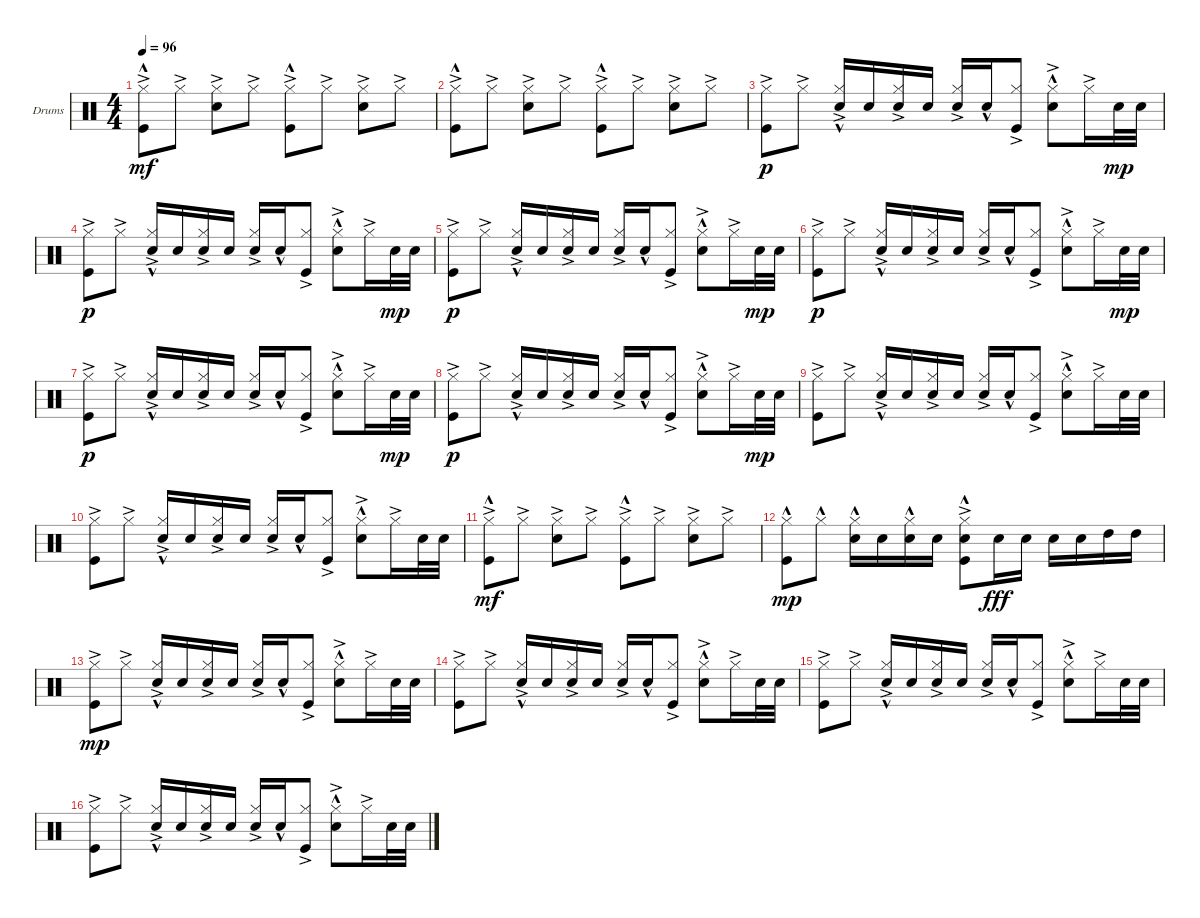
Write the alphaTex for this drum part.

\defaultSystemsLayout 4
\bracketExtendMode groupsimilarinstruments
\firstSystemTrackNameOrientation horizontal
\otherSystemsTrackNameOrientation horizontal
\track ("Drumkit" "Drums") {instrument percussion}
\staff {score}
\articulation defaults
\ts (4 4)
\tempo 96
\clef neutral
\ks c
("Hi-Hat (closed)"{ac} "Kick (hit)"{hac}).8{dy mf} "Hi-Hat (closed)"{ac}.8 ("Hi-Hat (closed)"{ac} "Snare (hit) 2").8 "Hi-Hat (closed)"{ac}.8 ("Hi-Hat (closed)"{ac} "Kick (hit)"{hac}).8 "Hi-Hat (closed)"{ac}.8 ("Hi-Hat (closed)"{ac} "Snare (hit) 2").8 "Hi-Hat (closed)"{ac}.8 |
("Hi-Hat (closed)"{ac} "Kick (hit)"{hac}).8 "Hi-Hat (closed)"{ac}.8 ("Hi-Hat (closed)"{ac} "Snare (hit) 2").8 "Hi-Hat (closed)"{ac}.8 ("Hi-Hat (closed)"{ac} "Kick (hit)"{hac}).8 "Hi-Hat (closed)"{ac}.8 ("Hi-Hat (closed)"{ac} "Snare (hit) 2").8 "Hi-Hat (closed)"{ac}.8 |
("Hi-Hat (closed)"{ac} "Kick (hit)"{ac}).8{dy p} "Hi-Hat (closed)"{ac}.8 ("Hi-Hat (closed)"{ac} "Snare (hit) 2"{hac}).16 "Snare (hit) 2".16 ("Snare (hit) 2" "Hi-Hat (closed)"{ac}).16 "Snare (hit) 2".16 ("Hi-Hat (closed)"{ac} "Snare (hit) 2").16{beam invert} "Snare (hit) 2"{hac}.16 ("Hi-Hat (closed)"{ac} "Kick (hit)").8 ("Snare (hit) 2"{hac} "Hi-Hat (closed)"{ac}).8 "Hi-Hat (closed)"{ac}.16 "Snare (hit) 2".32{dy mp} "Snare (hit) 2".32 |
("Hi-Hat (closed)"{ac} "Kick (hit)"{ac}).8{dy p} "Hi-Hat (closed)"{ac}.8 ("Hi-Hat (closed)"{ac} "Snare (hit) 2"{hac}).16 "Snare (hit) 2".16 ("Snare (hit) 2" "Hi-Hat (closed)"{ac}).16 "Snare (hit) 2".16 ("Hi-Hat (closed)"{ac} "Snare (hit) 2").16{beam invert} "Snare (hit) 2"{hac}.16 ("Hi-Hat (closed)"{ac} "Kick (hit)").8 ("Snare (hit) 2"{hac} "Hi-Hat (closed)"{ac}).8 "Hi-Hat (closed)"{ac}.16 "Snare (hit) 2".32{dy mp} "Snare (hit) 2".32 |
("Hi-Hat (closed)"{ac} "Kick (hit)"{ac}).8{dy p} "Hi-Hat (closed)"{ac}.8 ("Hi-Hat (closed)"{ac} "Snare (hit) 2"{hac}).16 "Snare (hit) 2".16 ("Snare (hit) 2" "Hi-Hat (closed)"{ac}).16 "Snare (hit) 2".16 ("Hi-Hat (closed)"{ac} "Snare (hit) 2").16{beam invert} "Snare (hit) 2"{hac}.16 ("Hi-Hat (closed)"{ac} "Kick (hit)").8 ("Snare (hit) 2"{hac} "Hi-Hat (closed)"{ac}).8 "Hi-Hat (closed)"{ac}.16 "Snare (hit) 2".32{dy mp} "Snare (hit) 2".32 |
("Hi-Hat (closed)"{ac} "Kick (hit)"{ac}).8{dy p} "Hi-Hat (closed)"{ac}.8 ("Hi-Hat (closed)"{ac} "Snare (hit) 2"{hac}).16 "Snare (hit) 2".16 ("Snare (hit) 2" "Hi-Hat (closed)"{ac}).16 "Snare (hit) 2".16 ("Hi-Hat (closed)"{ac} "Snare (hit) 2").16{beam invert} "Snare (hit) 2"{hac}.16 ("Hi-Hat (closed)"{ac} "Kick (hit)").8 ("Snare (hit) 2"{hac} "Hi-Hat (closed)"{ac}).8 "Hi-Hat (closed)"{ac}.16 "Snare (hit) 2".32{dy mp} "Snare (hit) 2".32 |
("Hi-Hat (closed)"{ac} "Kick (hit)"{ac}).8{dy p} "Hi-Hat (closed)"{ac}.8 ("Hi-Hat (closed)"{ac} "Snare (hit) 2"{hac}).16 "Snare (hit) 2".16 ("Snare (hit) 2" "Hi-Hat (closed)"{ac}).16 "Snare (hit) 2".16 ("Hi-Hat (closed)"{ac} "Snare (hit) 2").16{beam invert} "Snare (hit) 2"{hac}.16 ("Hi-Hat (closed)"{ac} "Kick (hit)").8 ("Snare (hit) 2"{hac} "Hi-Hat (closed)"{ac}).8 "Hi-Hat (closed)"{ac}.16 "Snare (hit) 2".32{dy mp} "Snare (hit) 2".32 |
("Hi-Hat (closed)"{ac} "Kick (hit)"{ac}).8{dy p} "Hi-Hat (closed)"{ac}.8 ("Hi-Hat (closed)"{ac} "Snare (hit) 2"{hac}).16 "Snare (hit) 2".16 ("Snare (hit) 2" "Hi-Hat (closed)"{ac}).16 "Snare (hit) 2".16 ("Hi-Hat (closed)"{ac} "Snare (hit) 2").16{beam invert} "Snare (hit) 2"{hac}.16 ("Hi-Hat (closed)"{ac} "Kick (hit)").8 ("Snare (hit) 2"{hac} "Hi-Hat (closed)"{ac}).8 "Hi-Hat (closed)"{ac}.16 "Snare (hit) 2".32{dy mp} "Snare (hit) 2".32 |
("Hi-Hat (closed)"{ac} "Kick (hit)"{ac}).8 "Hi-Hat (closed)"{ac}.8 ("Hi-Hat (closed)"{ac} "Snare (hit) 2"{hac}).16 "Snare (hit) 2".16 ("Snare (hit) 2" "Hi-Hat (closed)"{ac}).16 "Snare (hit) 2".16 ("Hi-Hat (closed)"{ac} "Snare (hit) 2").16{beam invert} "Snare (hit) 2"{hac}.16 ("Hi-Hat (closed)"{ac} "Kick (hit)").8 ("Snare (hit) 2"{hac} "Hi-Hat (closed)"{ac}).8 "Hi-Hat (closed)"{ac}.16 "Snare (hit) 2".32 "Snare (hit) 2".32 |
("Hi-Hat (closed)"{ac} "Kick (hit)"{ac}).8 "Hi-Hat (closed)"{ac}.8 ("Hi-Hat (closed)"{ac} "Snare (hit) 2"{hac}).16 "Snare (hit) 2".16 ("Snare (hit) 2" "Hi-Hat (closed)"{ac}).16 "Snare (hit) 2".16 ("Hi-Hat (closed)"{ac} "Snare (hit) 2").16{beam invert} "Snare (hit) 2"{hac}.16 ("Hi-Hat (closed)"{ac} "Kick (hit)").8 ("Snare (hit) 2"{hac} "Hi-Hat (closed)"{ac}).8 "Hi-Hat (closed)"{ac}.16 "Snare (hit) 2".32 "Snare (hit) 2".32 |
("Hi-Hat (closed)"{ac} "Kick (hit)"{hac}).8{dy mf} "Hi-Hat (closed)"{ac}.8 ("Hi-Hat (closed)"{ac} "Snare (hit) 2").8 "Hi-Hat (closed)"{ac}.8 ("Hi-Hat (closed)"{ac} "Kick (hit)"{hac}).8 "Hi-Hat (closed)"{ac}.8 ("Hi-Hat (closed)"{ac} "Snare (hit) 2").8 "Hi-Hat (closed)"{ac}.8 |
("Kick (hit)"{hac} "Hi-Hat (closed)"{hac}).8{dy mp} "Hi-Hat (closed)"{hac}.8 ("Hi-Hat (closed)"{hac} "Snare (hit) 2"{hac}).16 "Snare (hit) 2".16 ("Snare (hit) 2" "Hi-Hat (closed)"{hac}).16 "Snare (hit) 2".16 ("Kick (hit)"{ac} "Snare (hit) 2" "Hi-Hat (closed)"{hac}).8 "Snare (hit) 2".16{dy fff} "Snare (hit) 2".16 "Snare (hit) 2".16 "Snare (hit) 2".16 "High Tom (hit)".16 "High Tom (hit)".16 |
("Hi-Hat (closed)"{ac} "Kick (hit)"{ac}).8{dy mp} "Hi-Hat (closed)"{ac}.8 ("Hi-Hat (closed)"{ac} "Snare (hit) 2"{hac}).16 "Snare (hit) 2".16 ("Snare (hit) 2" "Hi-Hat (closed)"{ac}).16 "Snare (hit) 2".16 ("Hi-Hat (closed)"{ac} "Snare (hit) 2").16{beam invert} "Snare (hit) 2"{hac}.16 ("Hi-Hat (closed)"{ac} "Kick (hit)").8 ("Snare (hit) 2"{hac} "Hi-Hat (closed)"{ac}).8 "Hi-Hat (closed)"{ac}.16 "Snare (hit) 2".32 "Snare (hit) 2".32 |
("Hi-Hat (closed)"{ac} "Kick (hit)"{ac}).8 "Hi-Hat (closed)"{ac}.8 ("Hi-Hat (closed)"{ac} "Snare (hit) 2"{hac}).16 "Snare (hit) 2".16 ("Snare (hit) 2" "Hi-Hat (closed)"{ac}).16 "Snare (hit) 2".16 ("Hi-Hat (closed)"{ac} "Snare (hit) 2").16{beam invert} "Snare (hit) 2"{hac}.16 ("Hi-Hat (closed)"{ac} "Kick (hit)").8 ("Snare (hit) 2"{hac} "Hi-Hat (closed)"{ac}).8 "Hi-Hat (closed)"{ac}.16 "Snare (hit) 2".32 "Snare (hit) 2".32 |
("Hi-Hat (closed)"{ac} "Kick (hit)"{ac}).8 "Hi-Hat (closed)"{ac}.8 ("Hi-Hat (closed)"{ac} "Snare (hit) 2"{hac}).16 "Snare (hit) 2".16 ("Snare (hit) 2" "Hi-Hat (closed)"{ac}).16 "Snare (hit) 2".16 ("Hi-Hat (closed)"{ac} "Snare (hit) 2").16{beam invert} "Snare (hit) 2"{hac}.16 ("Hi-Hat (closed)"{ac} "Kick (hit)").8 ("Snare (hit) 2"{hac} "Hi-Hat (closed)"{ac}).8 "Hi-Hat (closed)"{ac}.16 "Snare (hit) 2".32 "Snare (hit) 2".32 |
("Hi-Hat (closed)"{ac} "Kick (hit)"{ac}).8 "Hi-Hat (closed)"{ac}.8 ("Hi-Hat (closed)"{ac} "Snare (hit) 2"{hac}).16 "Snare (hit) 2".16 ("Snare (hit) 2" "Hi-Hat (closed)"{ac}).16 "Snare (hit) 2".16 ("Hi-Hat (closed)"{ac} "Snare (hit) 2").16{beam invert} "Snare (hit) 2"{hac}.16 ("Hi-Hat (closed)"{ac} "Kick (hit)").8 ("Snare (hit) 2"{hac} "Hi-Hat (closed)"{ac}).8 "Hi-Hat (closed)"{ac}.16 "Snare (hit) 2".32 "Snare (hit) 2".32
